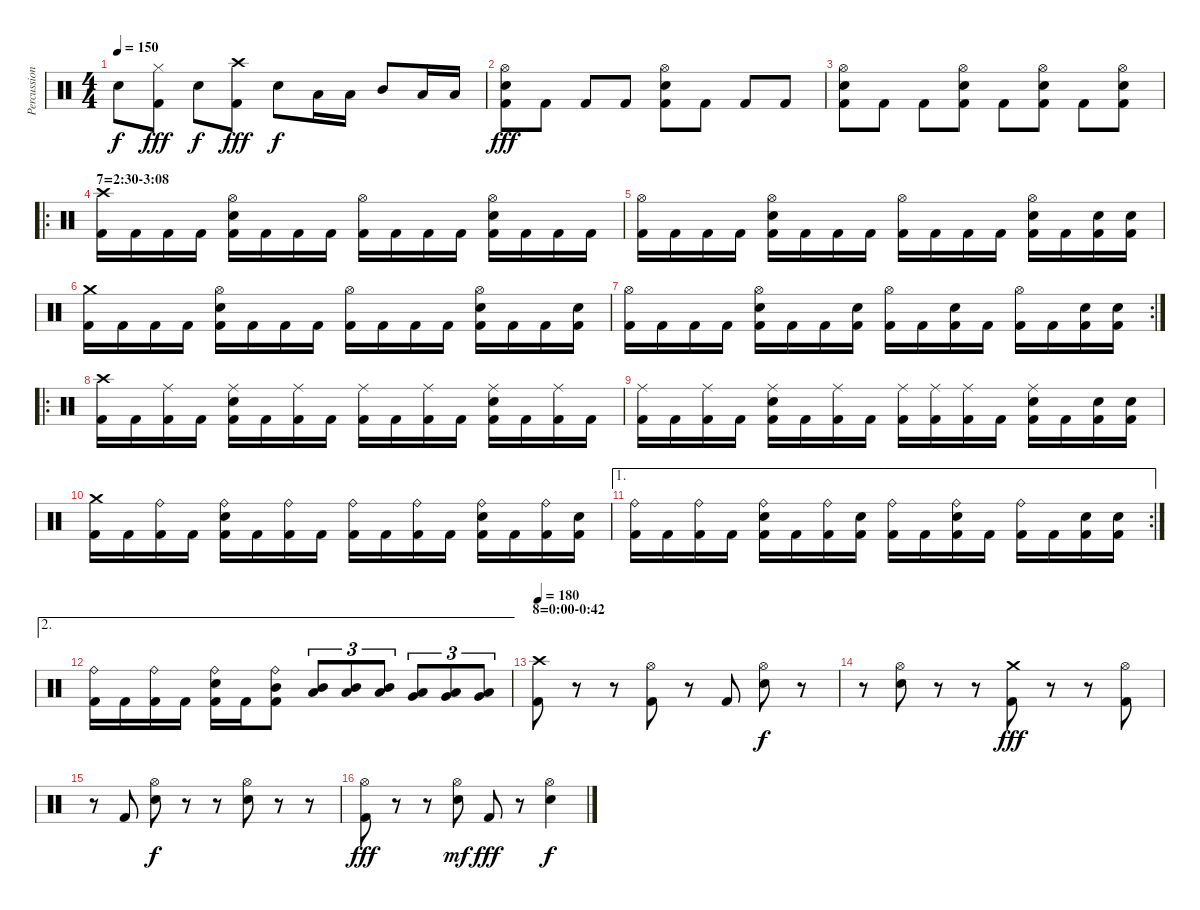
\track ("Percussion" "Percussion") {instrument percussion}
\staff {score}
\articulation defaults
\ts (4 4)
\tempo 150
\clef neutral
\ks c "Snare (hit) 2".8{dy f}
("Hi-Hat (closed)" "Kick (hit) 2").8{dy fff} "Snare (hit) 2".8{dy f} ("Crash high (hit)" "Kick (hit) 2").8{dy fff} "Snare (hit) 2".8{dy f} "Low Tom (hit)".16 "Low Tom (hit)".16 "Mid Tom (hit)".8 "Low Tom (hit)".16 "Low Tom (hit)".16 |
("Hi-Hat (open)" "Snare (hit) 2" "Kick (hit) 2").8{dy fff} "Kick (hit) 2".8 "Kick (hit) 2".8 "Kick (hit) 2".8 ("Hi-Hat (open)" "Snare (hit) 2" "Kick (hit) 2").8 "Kick (hit) 2".8 "Kick (hit) 2".8 "Kick (hit) 2".8 |
("Hi-Hat (open)" "Snare (hit) 2" "Kick (hit) 2").8 "Kick (hit) 2".8 "Kick (hit) 2".8 ("Hi-Hat (open)" "Snare (hit) 2" "Kick (hit) 2").8 "Kick (hit) 2".8 ("Hi-Hat (open)" "Snare (hit) 2" "Kick (hit) 2").8 "Kick (hit) 2".8 ("Hi-Hat (open)" "Snare (hit) 2" "Kick (hit) 2").8 |
\ro
\section ("" "7=2:30-3:08")
("Crash high (hit)" "Kick (hit) 2").16 "Kick (hit) 2".16 "Kick (hit) 2".16 "Kick (hit) 2".16 ("Hi-Hat (open)" "Snare (hit) 2" "Kick (hit) 2").16 "Kick (hit) 2".16 "Kick (hit) 2".16 "Kick (hit) 2".16 ("Hi-Hat (open)" "Kick (hit) 2").16 "Kick (hit) 2".16 "Kick (hit) 2".16 "Kick (hit) 2".16 ("Hi-Hat (open)" "Snare (hit) 2" "Kick (hit) 2").16 "Kick (hit) 2".16 "Kick (hit) 2".16 "Kick (hit) 2".16 |
("Hi-Hat (open)" "Kick (hit) 2").16 "Kick (hit) 2".16 "Kick (hit) 2".16 "Kick (hit) 2".16 ("Hi-Hat (open)" "Snare (hit) 2" "Kick (hit) 2").16 "Kick (hit) 2".16 "Kick (hit) 2".16 "Kick (hit) 2".16 ("Hi-Hat (open)" "Kick (hit) 2").16 "Kick (hit) 2".16 "Kick (hit) 2".16 "Kick (hit) 2".16 ("Hi-Hat (open)" "Snare (hit) 2" "Kick (hit) 2").16 "Kick (hit) 2".16 ("Snare (hit) 2" "Kick (hit) 2").16 ("Snare (hit) 2" "Kick (hit) 2").16 |
("Crash medium (hit)" "Kick (hit) 2").16 "Kick (hit) 2".16 "Kick (hit) 2".16 "Kick (hit) 2".16 ("Hi-Hat (open)" "Snare (hit) 2" "Kick (hit) 2").16 "Kick (hit) 2".16 "Kick (hit) 2".16 "Kick (hit) 2".16 ("Hi-Hat (open)" "Kick (hit) 2").16 "Kick (hit) 2".16 "Kick (hit) 2".16 "Kick (hit) 2".16 ("Hi-Hat (open)" "Snare (hit) 2" "Kick (hit) 2").16 "Kick (hit) 2".16 "Kick (hit) 2".16 ("Snare (hit) 2" "Kick (hit) 2").16 |
\rc 2
("Hi-Hat (open)" "Kick (hit) 2").16 "Kick (hit) 2".16 "Kick (hit) 2".16 "Kick (hit) 2".16 ("Hi-Hat (open)" "Snare (hit) 2" "Kick (hit) 2").16 "Kick (hit) 2".16 "Kick (hit) 2".16 ("Snare (hit) 2" "Kick (hit) 2").16 ("Hi-Hat (open)" "Kick (hit) 2").16 "Kick (hit) 2".16 ("Snare (hit) 2" "Kick (hit) 2").16 "Kick (hit) 2".16 ("Hi-Hat (open)" "Kick (hit) 2").16 "Kick (hit) 2".16 ("Snare (hit) 2" "Kick (hit) 2").16 ("Snare (hit) 2" "Kick (hit) 2").16 |
\ro
("Crash high (hit)" "Kick (hit) 2").16 "Kick (hit) 2".16 ("Ride (middle)" "Kick (hit) 2").16 "Kick (hit) 2".16 ("Ride (middle)" "Snare (hit) 2" "Kick (hit) 2").16 "Kick (hit) 2".16 ("Ride (middle)" "Kick (hit) 2").16 "Kick (hit) 2".16 ("Ride (middle)" "Kick (hit) 2").16 "Kick (hit) 2".16 ("Ride (middle)" "Kick (hit) 2").16 "Kick (hit) 2".16 ("Ride (middle)" "Snare (hit) 2" "Kick (hit) 2").16 "Kick (hit) 2".16 ("Ride (middle)" "Kick (hit) 2").16 "Kick (hit) 2".16 |
("Ride (middle)" "Kick (hit) 2").16 "Kick (hit) 2".16 ("Ride (middle)" "Kick (hit) 2").16 "Kick (hit) 2".16 ("Ride (middle)" "Snare (hit) 2" "Kick (hit) 2").16 "Kick (hit) 2".16 ("Ride (middle)" "Kick (hit) 2").16 "Kick (hit) 2".16 ("Ride (middle)" "Kick (hit) 2").16 ("Ride (middle)" "Kick (hit) 2").16 ("Ride (middle)" "Kick (hit) 2").16 "Kick (hit) 2".16 ("Ride (middle)" "Snare (hit) 2" "Kick (hit) 2").16 "Kick (hit) 2".16 ("Snare (hit) 2" "Kick (hit) 2").16 ("Snare (hit) 2" "Kick (hit) 2").16 |
("Crash medium (hit)" "Kick (hit) 2").16 "Kick (hit) 2".16 ("Ride (bell)" "Kick (hit) 2").16 "Kick (hit) 2".16 ("Ride (bell)" "Snare (hit) 2" "Kick (hit) 2").16 "Kick (hit) 2".16 ("Ride (bell)" "Kick (hit) 2").16 "Kick (hit) 2".16 ("Ride (bell)" "Kick (hit) 2").16 "Kick (hit) 2".16 ("Ride (bell)" "Kick (hit) 2").16 "Kick (hit) 2".16 ("Ride (bell)" "Snare (hit) 2" "Kick (hit) 2").16 "Kick (hit) 2".16 ("Ride (bell)" "Kick (hit) 2").16 ("Snare (hit) 2" "Kick (hit) 2").16 |
\ae 1
\rc 2
("Ride (bell)" "Kick (hit) 2").16 "Kick (hit) 2".16 ("Ride (bell)" "Kick (hit) 2").16 "Kick (hit) 2".16 ("Ride (bell)" "Snare (hit) 2" "Kick (hit) 2").16 "Kick (hit) 2".16 ("Ride (bell)" "Kick (hit) 2").16 ("Snare (hit) 2" "Kick (hit) 2").16 ("Ride (bell)" "Kick (hit) 2").16 "Kick (hit) 2".16 ("Ride (bell)" "Snare (hit) 2" "Kick (hit) 2").16 "Kick (hit) 2".16 ("Ride (bell)" "Kick (hit) 2").16 "Kick (hit) 2".16 ("Snare (hit) 2" "Kick (hit) 2").16 ("Snare (hit) 2" "Kick (hit) 2").16 |
\ae 2
("Ride (bell)" "Kick (hit) 2").16 "Kick (hit) 2".16 ("Ride (bell)" "Kick (hit) 2").16 "Kick (hit) 2".16 ("Ride (bell)" "Snare (hit) 2" "Kick (hit) 2").16 "Kick (hit) 2".16 ("Ride (bell)" "Mid Tom (hit)" "Kick (hit) 2").8 ("Mid Tom (hit)" "Low Tom (hit)").8{tu (3 2)} ("Mid Tom (hit)" "Low Tom (hit)").8{tu (3 2)} ("Mid Tom (hit)" "Low Tom (hit)").8{tu (3 2)} ("Low Tom (hit)" "Very Low Tom (hit)").8{tu (3 2)} ("Low Tom (hit)" "Very Low Tom (hit)").8{tu (3 2)} ("Low Tom (hit)" "Very Low Tom (hit)").8{tu (3 2)} |
\section ("" "8=0:00-0:42")
\tempo 180
("Crash high (hit)" "Kick (hit) 2").8 r.8 r.8 ("Hi-Hat (open)" "Kick (hit) 2").8 r.8 "Kick (hit) 2".8 ("Hi-Hat (open)" "Snare (hit) 2").8{dy f} r.8 |
r.8 ("Hi-Hat (open)" "Snare (hit) 2").8 r.8 r.8 ("Crash medium (hit)" "Kick (hit) 2").8{dy fff} r.8 r.8 ("Hi-Hat (open)" "Kick (hit) 2").8 |
r.8 "Kick (hit) 2".8 ("Hi-Hat (open)" "Snare (hit) 2").8{dy f} r.8 r.8 ("Hi-Hat (open)" "Snare (hit) 2").8 r.8 r.8 |
("Hi-Hat (open)" "Kick (hit) 2").8{dy fff} r.8 r.8 ("Hi-Hat (open)" "Snare (hit) 2").8{dy mf} "Kick (hit) 2".8{dy fff} r.8 ("Hi-Hat (open)" "Snare (hit) 2").4{dy f}
